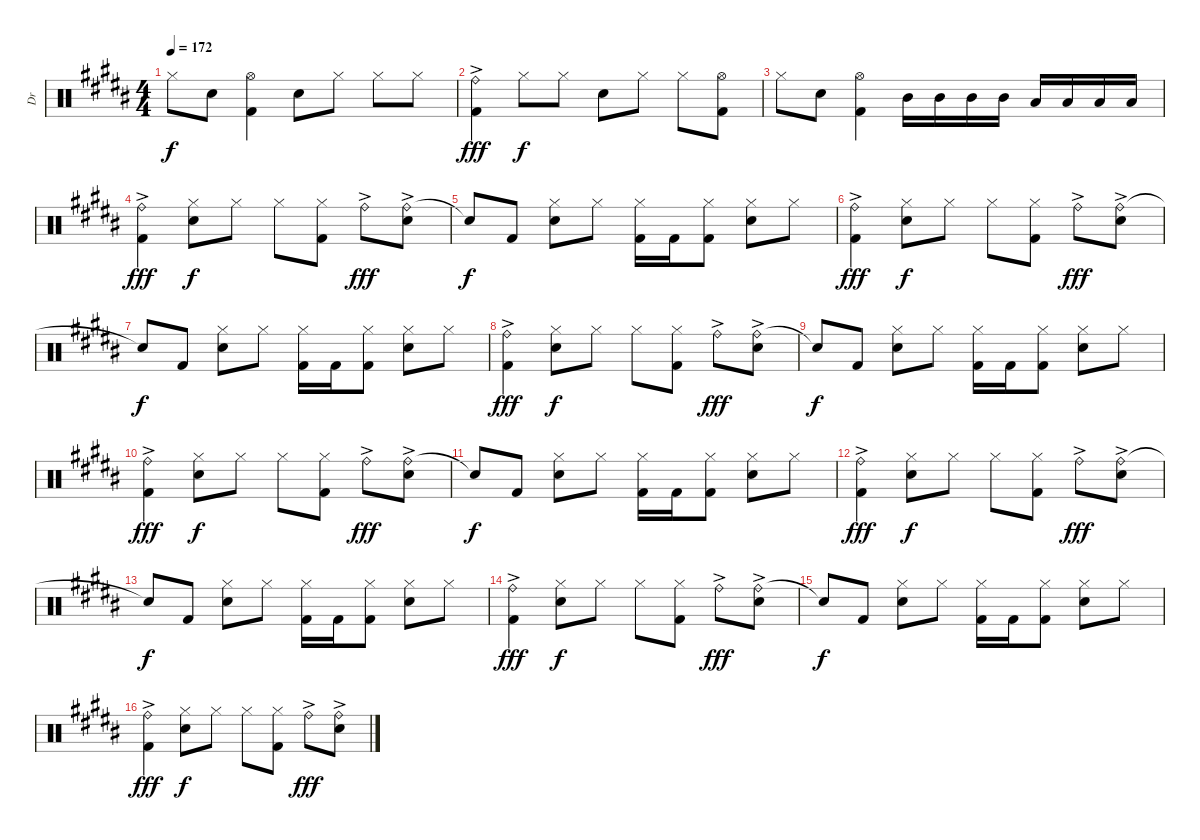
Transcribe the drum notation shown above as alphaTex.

\track ("Dr" "Dr") {instrument percussion}
\staff {score}
\articulation defaults
\ts (4 4)
\tempo 172
\clef neutral
\ks b "Hi-Hat (closed)".8{dy f} "Electric Snare (hit)".8
("Hi-Hat (open)" "Kick (hit) 2").4 "Electric Snare (hit)".8 "Hi-Hat (closed)".8 "Hi-Hat (closed)".8 "Hi-Hat (closed)".8 |
("Ride (bell)"{ac} "Kick (hit) 2"{ac}).4{dy fff} "Hi-Hat (closed)".8{dy f} "Hi-Hat (closed)".8 "Electric Snare (hit)".8 "Hi-Hat (closed)".8 "Hi-Hat (closed)".8 ("Hi-Hat (open)" "Kick (hit) 2").8 |
"Hi-Hat (closed)".8 "Electric Snare (hit)".8 ("Hi-Hat (open)" "Kick (hit) 2").4 "Mid Tom (hit)".16 "Mid Tom (hit)".16 "Mid Tom (hit)".16 "Mid Tom (hit)".16 "Low Tom (hit)".16 "Low Tom (hit)".16 "Low Tom (hit)".16 "Low Tom (hit)".16 |
("Ride (bell)"{ac} "Kick (hit) 2"{ac}).4{dy fff} ("Hi-Hat (closed)" "Electric Snare (hit)").8{dy f} "Hi-Hat (closed)".8 "Hi-Hat (closed)".8 ("Hi-Hat (closed)" "Kick (hit) 2").8 "Ride (bell)"{ac}.8{dy fff} ("Ride (bell)"{ac} "Electric Snare (hit)").8 |
"Snare (hit)"{t}.8{dy f} "Kick (hit) 2".8 ("Hi-Hat (closed)" "Electric Snare (hit)").8 "Hi-Hat (closed)".8 ("Hi-Hat (closed)" "Kick (hit) 2").16 "Kick (hit) 2".16 ("Hi-Hat (closed)" "Kick (hit) 2").8 ("Hi-Hat (closed)" "Electric Snare (hit)").8 "Hi-Hat (closed)".8 |
("Ride (bell)"{ac} "Kick (hit) 2"{ac}).4{dy fff} ("Hi-Hat (closed)" "Electric Snare (hit)").8{dy f} "Hi-Hat (closed)".8 "Hi-Hat (closed)".8 ("Hi-Hat (closed)" "Kick (hit) 2").8 "Ride (bell)"{ac}.8{dy fff} ("Ride (bell)"{ac} "Electric Snare (hit)").8 |
"Snare (hit)"{t}.8{dy f} "Kick (hit) 2".8 ("Hi-Hat (closed)" "Electric Snare (hit)").8 "Hi-Hat (closed)".8 ("Hi-Hat (closed)" "Kick (hit) 2").16 "Kick (hit) 2".16 ("Hi-Hat (closed)" "Kick (hit) 2").8 ("Hi-Hat (closed)" "Electric Snare (hit)").8 "Hi-Hat (closed)".8 |
("Ride (bell)"{ac} "Kick (hit) 2"{ac}).4{dy fff} ("Hi-Hat (closed)" "Electric Snare (hit)").8{dy f} "Hi-Hat (closed)".8 "Hi-Hat (closed)".8 ("Hi-Hat (closed)" "Kick (hit) 2").8 "Ride (bell)"{ac}.8{dy fff} ("Ride (bell)"{ac} "Electric Snare (hit)").8 |
"Snare (hit)"{t}.8{dy f} "Kick (hit) 2".8 ("Hi-Hat (closed)" "Electric Snare (hit)").8 "Hi-Hat (closed)".8 ("Hi-Hat (closed)" "Kick (hit) 2").16 "Kick (hit) 2".16 ("Hi-Hat (closed)" "Kick (hit) 2").8 ("Hi-Hat (closed)" "Electric Snare (hit)").8 "Hi-Hat (closed)".8 |
("Ride (bell)"{ac} "Kick (hit) 2"{ac}).4{dy fff} ("Hi-Hat (closed)" "Electric Snare (hit)").8{dy f} "Hi-Hat (closed)".8 "Hi-Hat (closed)".8 ("Hi-Hat (closed)" "Kick (hit) 2").8 "Ride (bell)"{ac}.8{dy fff} ("Ride (bell)"{ac} "Electric Snare (hit)").8 |
"Snare (hit)"{t}.8{dy f} "Kick (hit) 2".8 ("Hi-Hat (closed)" "Electric Snare (hit)").8 "Hi-Hat (closed)".8 ("Hi-Hat (closed)" "Kick (hit) 2").16 "Kick (hit) 2".16 ("Hi-Hat (closed)" "Kick (hit) 2").8 ("Hi-Hat (closed)" "Electric Snare (hit)").8 "Hi-Hat (closed)".8 |
("Ride (bell)"{ac} "Kick (hit) 2"{ac}).4{dy fff} ("Hi-Hat (closed)" "Electric Snare (hit)").8{dy f} "Hi-Hat (closed)".8 "Hi-Hat (closed)".8 ("Hi-Hat (closed)" "Kick (hit) 2").8 "Ride (bell)"{ac}.8{dy fff} ("Ride (bell)"{ac} "Electric Snare (hit)").8 |
"Snare (hit)"{t}.8{dy f} "Kick (hit) 2".8 ("Hi-Hat (closed)" "Electric Snare (hit)").8 "Hi-Hat (closed)".8 ("Hi-Hat (closed)" "Kick (hit) 2").16 "Kick (hit) 2".16 ("Hi-Hat (closed)" "Kick (hit) 2").8 ("Hi-Hat (closed)" "Electric Snare (hit)").8 "Hi-Hat (closed)".8 |
("Ride (bell)"{ac} "Kick (hit) 2"{ac}).4{dy fff} ("Hi-Hat (closed)" "Electric Snare (hit)").8{dy f} "Hi-Hat (closed)".8 "Hi-Hat (closed)".8 ("Hi-Hat (closed)" "Kick (hit) 2").8 "Ride (bell)"{ac}.8{dy fff} ("Ride (bell)"{ac} "Electric Snare (hit)").8 |
"Snare (hit)"{t}.8{dy f} "Kick (hit) 2".8 ("Hi-Hat (closed)" "Electric Snare (hit)").8 "Hi-Hat (closed)".8 ("Hi-Hat (closed)" "Kick (hit) 2").16 "Kick (hit) 2".16 ("Hi-Hat (closed)" "Kick (hit) 2").8 ("Hi-Hat (closed)" "Electric Snare (hit)").8 "Hi-Hat (closed)".8 |
("Ride (bell)"{ac} "Kick (hit) 2"{ac}).4{dy fff} ("Hi-Hat (closed)" "Electric Snare (hit)").8{dy f} "Hi-Hat (closed)".8 "Hi-Hat (closed)".8 ("Hi-Hat (closed)" "Kick (hit) 2").8 "Ride (bell)"{ac}.8{dy fff} ("Ride (bell)"{ac} "Electric Snare (hit)").8
